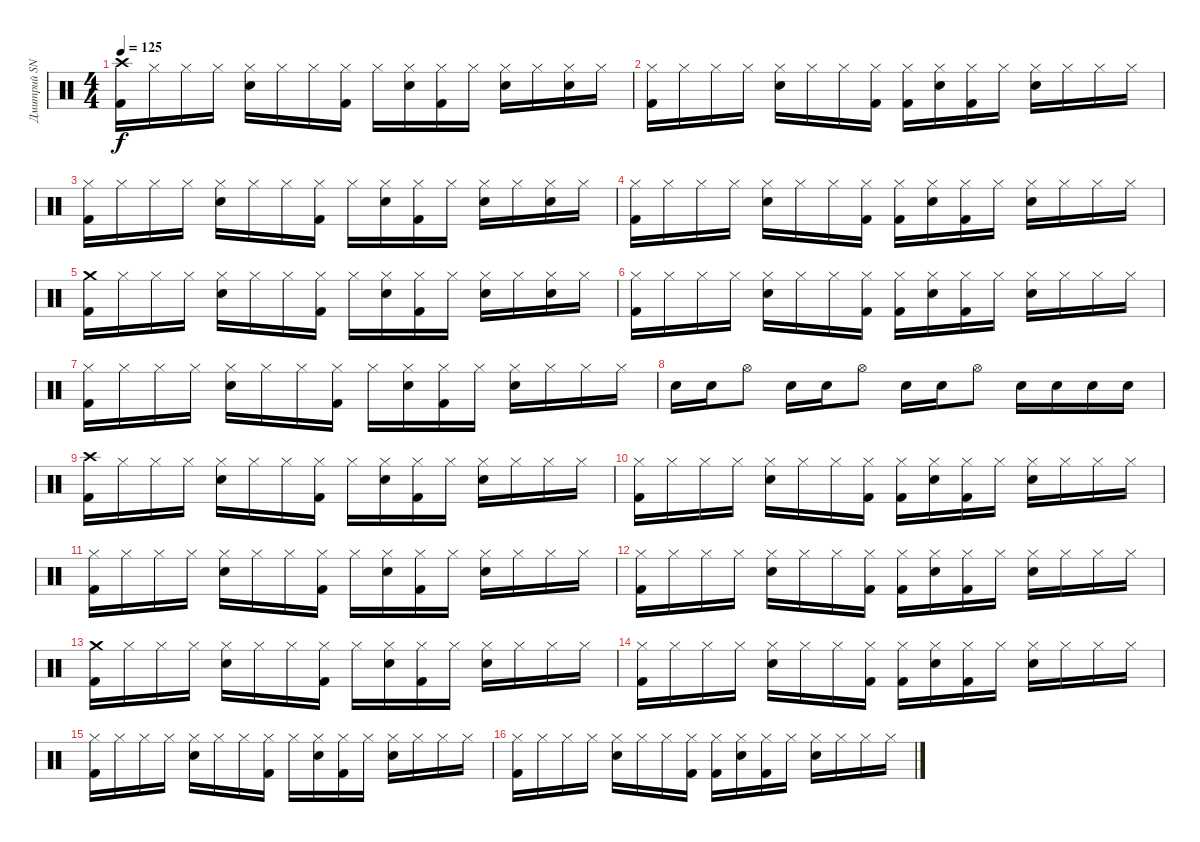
\track ("Дмитрий SNAKE Хакимов" "Дмитрий SN") {instrument percussion}
\staff {score}
\articulation defaults
\ts (4 4)
\tempo 125
\clef neutral
\ks c
("Crash high (hit)" "Kick (hit) 2").16{dy f} "Hi-Hat (closed)".16 "Hi-Hat (closed)".16 "Hi-Hat (closed)".16 ("Hi-Hat (closed)" "Snare (hit) 2").16 "Hi-Hat (closed)".16 "Hi-Hat (closed)".16 ("Hi-Hat (closed)" "Kick (hit) 2").16 "Hi-Hat (closed)".16 ("Hi-Hat (closed)" "Snare (hit) 2").16 ("Hi-Hat (closed)" "Kick (hit) 2").16 "Hi-Hat (closed)".16 ("Hi-Hat (closed)" "Snare (hit) 2").16 "Hi-Hat (closed)".16 ("Hi-Hat (closed)" "Snare (hit) 2").16 "Hi-Hat (closed)".16 |
("Hi-Hat (closed)" "Kick (hit) 2").16 "Hi-Hat (closed)".16 "Hi-Hat (closed)".16 "Hi-Hat (closed)".16 ("Hi-Hat (closed)" "Snare (hit) 2").16 "Hi-Hat (closed)".16 "Hi-Hat (closed)".16 ("Hi-Hat (closed)" "Kick (hit) 2").16 ("Hi-Hat (closed)" "Kick (hit) 2").16 ("Hi-Hat (closed)" "Snare (hit) 2").16 ("Hi-Hat (closed)" "Kick (hit) 2").16 "Hi-Hat (closed)".16 ("Hi-Hat (closed)" "Snare (hit) 2").16 "Hi-Hat (closed)".16 "Hi-Hat (closed)".16 "Hi-Hat (closed)".16 |
("Hi-Hat (closed)" "Kick (hit) 2").16 "Hi-Hat (closed)".16 "Hi-Hat (closed)".16 "Hi-Hat (closed)".16 ("Hi-Hat (closed)" "Snare (hit) 2").16 "Hi-Hat (closed)".16 "Hi-Hat (closed)".16 ("Hi-Hat (closed)" "Kick (hit) 2").16 "Hi-Hat (closed)".16 ("Hi-Hat (closed)" "Snare (hit) 2").16 ("Hi-Hat (closed)" "Kick (hit) 2").16 "Hi-Hat (closed)".16 ("Hi-Hat (closed)" "Snare (hit) 2").16 "Hi-Hat (closed)".16 ("Hi-Hat (closed)" "Snare (hit) 2").16 "Hi-Hat (closed)".16 |
("Hi-Hat (closed)" "Kick (hit) 2").16 "Hi-Hat (closed)".16 "Hi-Hat (closed)".16 "Hi-Hat (closed)".16 ("Hi-Hat (closed)" "Snare (hit) 2").16 "Hi-Hat (closed)".16 "Hi-Hat (closed)".16 ("Hi-Hat (closed)" "Kick (hit) 2").16 ("Hi-Hat (closed)" "Kick (hit) 2").16 ("Hi-Hat (closed)" "Snare (hit) 2").16 ("Hi-Hat (closed)" "Kick (hit) 2").16 "Hi-Hat (closed)".16 ("Hi-Hat (closed)" "Snare (hit) 2").16 "Hi-Hat (closed)".16 "Hi-Hat (closed)".16 "Hi-Hat (closed)".16 |
("Crash medium (hit)" "Kick (hit) 2").16 "Hi-Hat (closed)".16 "Hi-Hat (closed)".16 "Hi-Hat (closed)".16 ("Hi-Hat (closed)" "Snare (hit) 2").16 "Hi-Hat (closed)".16 "Hi-Hat (closed)".16 ("Hi-Hat (closed)" "Kick (hit) 2").16 "Hi-Hat (closed)".16 ("Hi-Hat (closed)" "Snare (hit) 2").16 ("Hi-Hat (closed)" "Kick (hit) 2").16 "Hi-Hat (closed)".16 ("Hi-Hat (closed)" "Snare (hit) 2").16 "Hi-Hat (closed)".16 ("Hi-Hat (closed)" "Snare (hit) 2").16 "Hi-Hat (closed)".16 |
("Hi-Hat (closed)" "Kick (hit) 2").16 "Hi-Hat (closed)".16 "Hi-Hat (closed)".16 "Hi-Hat (closed)".16 ("Hi-Hat (closed)" "Snare (hit) 2").16 "Hi-Hat (closed)".16 "Hi-Hat (closed)".16 ("Hi-Hat (closed)" "Kick (hit) 2").16 ("Hi-Hat (closed)" "Kick (hit) 2").16 ("Hi-Hat (closed)" "Snare (hit) 2").16 ("Hi-Hat (closed)" "Kick (hit) 2").16 "Hi-Hat (closed)".16 ("Hi-Hat (closed)" "Snare (hit) 2").16 "Hi-Hat (closed)".16 "Hi-Hat (closed)".16 "Hi-Hat (closed)".16 |
("Hi-Hat (closed)" "Kick (hit) 2").16 "Hi-Hat (closed)".16 "Hi-Hat (closed)".16 "Hi-Hat (closed)".16 ("Hi-Hat (closed)" "Snare (hit) 2").16 "Hi-Hat (closed)".16 "Hi-Hat (closed)".16 ("Hi-Hat (closed)" "Kick (hit) 2").16 "Hi-Hat (closed)".16 ("Hi-Hat (closed)" "Snare (hit) 2").16 ("Hi-Hat (closed)" "Kick (hit) 2").16 "Hi-Hat (closed)".16 ("Hi-Hat (closed)" "Snare (hit) 2").16 "Hi-Hat (closed)".16 "Hi-Hat (closed)".16 "Hi-Hat (closed)".16 |
"Snare (hit) 2".16 "Snare (hit) 2".16 "Hi-Hat (open)".8 "Snare (hit) 2".16 "Snare (hit) 2".16 "Hi-Hat (open)".8 "Snare (hit) 2".16 "Snare (hit) 2".16 "Hi-Hat (open)".8 "Snare (hit) 2".16 "Snare (hit) 2".16 "Snare (hit) 2".16 "Snare (hit) 2".16 |
("Crash high (hit)" "Kick (hit) 2").16 "Hi-Hat (closed)".16 "Hi-Hat (closed)".16 "Hi-Hat (closed)".16 ("Hi-Hat (closed)" "Snare (hit) 2").16 "Hi-Hat (closed)".16 "Hi-Hat (closed)".16 ("Hi-Hat (closed)" "Kick (hit) 2").16 "Hi-Hat (closed)".16 ("Hi-Hat (closed)" "Snare (hit) 2").16 ("Hi-Hat (closed)" "Kick (hit) 2").16 "Hi-Hat (closed)".16 ("Hi-Hat (closed)" "Snare (hit) 2").16 "Hi-Hat (closed)".16 "Hi-Hat (closed)".16 "Hi-Hat (closed)".16 |
("Hi-Hat (closed)" "Kick (hit) 2").16 "Hi-Hat (closed)".16 "Hi-Hat (closed)".16 "Hi-Hat (closed)".16 ("Hi-Hat (closed)" "Snare (hit) 2").16 "Hi-Hat (closed)".16 "Hi-Hat (closed)".16 ("Hi-Hat (closed)" "Kick (hit) 2").16 ("Hi-Hat (closed)" "Kick (hit) 2").16 ("Hi-Hat (closed)" "Snare (hit) 2").16 ("Hi-Hat (closed)" "Kick (hit) 2").16 "Hi-Hat (closed)".16 ("Hi-Hat (closed)" "Snare (hit) 2").16 "Hi-Hat (closed)".16 "Hi-Hat (closed)".16 "Hi-Hat (closed)".16 |
("Hi-Hat (closed)" "Kick (hit) 2").16 "Hi-Hat (closed)".16 "Hi-Hat (closed)".16 "Hi-Hat (closed)".16 ("Hi-Hat (closed)" "Snare (hit) 2").16 "Hi-Hat (closed)".16 "Hi-Hat (closed)".16 ("Hi-Hat (closed)" "Kick (hit) 2").16 "Hi-Hat (closed)".16 ("Hi-Hat (closed)" "Snare (hit) 2").16 ("Hi-Hat (closed)" "Kick (hit) 2").16 "Hi-Hat (closed)".16 ("Hi-Hat (closed)" "Snare (hit) 2").16 "Hi-Hat (closed)".16 "Hi-Hat (closed)".16 "Hi-Hat (closed)".16 |
("Hi-Hat (closed)" "Kick (hit) 2").16 "Hi-Hat (closed)".16 "Hi-Hat (closed)".16 "Hi-Hat (closed)".16 ("Hi-Hat (closed)" "Snare (hit) 2").16 "Hi-Hat (closed)".16 "Hi-Hat (closed)".16 ("Hi-Hat (closed)" "Kick (hit) 2").16 ("Hi-Hat (closed)" "Kick (hit) 2").16 ("Hi-Hat (closed)" "Snare (hit) 2").16 ("Hi-Hat (closed)" "Kick (hit) 2").16 "Hi-Hat (closed)".16 ("Hi-Hat (closed)" "Snare (hit) 2").16 "Hi-Hat (closed)".16 "Hi-Hat (closed)".16 "Hi-Hat (closed)".16 |
("Crash medium (hit)" "Kick (hit) 2").16 "Hi-Hat (closed)".16 "Hi-Hat (closed)".16 "Hi-Hat (closed)".16 ("Hi-Hat (closed)" "Snare (hit) 2").16 "Hi-Hat (closed)".16 "Hi-Hat (closed)".16 ("Hi-Hat (closed)" "Kick (hit) 2").16 "Hi-Hat (closed)".16 ("Hi-Hat (closed)" "Snare (hit) 2").16 ("Hi-Hat (closed)" "Kick (hit) 2").16 "Hi-Hat (closed)".16 ("Hi-Hat (closed)" "Snare (hit) 2").16 "Hi-Hat (closed)".16 "Hi-Hat (closed)".16 "Hi-Hat (closed)".16 |
("Hi-Hat (closed)" "Kick (hit) 2").16 "Hi-Hat (closed)".16 "Hi-Hat (closed)".16 "Hi-Hat (closed)".16 ("Hi-Hat (closed)" "Snare (hit) 2").16 "Hi-Hat (closed)".16 "Hi-Hat (closed)".16 ("Hi-Hat (closed)" "Kick (hit) 2").16 ("Hi-Hat (closed)" "Kick (hit) 2").16 ("Hi-Hat (closed)" "Snare (hit) 2").16 ("Hi-Hat (closed)" "Kick (hit) 2").16 "Hi-Hat (closed)".16 ("Hi-Hat (closed)" "Snare (hit) 2").16 "Hi-Hat (closed)".16 "Hi-Hat (closed)".16 "Hi-Hat (closed)".16 |
("Hi-Hat (closed)" "Kick (hit) 2").16 "Hi-Hat (closed)".16 "Hi-Hat (closed)".16 "Hi-Hat (closed)".16 ("Hi-Hat (closed)" "Snare (hit) 2").16 "Hi-Hat (closed)".16 "Hi-Hat (closed)".16 ("Hi-Hat (closed)" "Kick (hit) 2").16 "Hi-Hat (closed)".16 ("Hi-Hat (closed)" "Snare (hit) 2").16 ("Hi-Hat (closed)" "Kick (hit) 2").16 "Hi-Hat (closed)".16 ("Hi-Hat (closed)" "Snare (hit) 2").16 "Hi-Hat (closed)".16 "Hi-Hat (closed)".16 "Hi-Hat (closed)".16 |
("Hi-Hat (closed)" "Kick (hit) 2").16 "Hi-Hat (closed)".16 "Hi-Hat (closed)".16 "Hi-Hat (closed)".16 ("Hi-Hat (closed)" "Snare (hit) 2").16 "Hi-Hat (closed)".16 "Hi-Hat (closed)".16 ("Hi-Hat (closed)" "Kick (hit) 2").16 ("Hi-Hat (closed)" "Kick (hit) 2").16 ("Hi-Hat (closed)" "Snare (hit) 2").16 ("Hi-Hat (closed)" "Kick (hit) 2").16 "Hi-Hat (closed)".16 ("Hi-Hat (closed)" "Snare (hit) 2").16 "Hi-Hat (closed)".16 "Hi-Hat (closed)".16 "Hi-Hat (closed)".16
